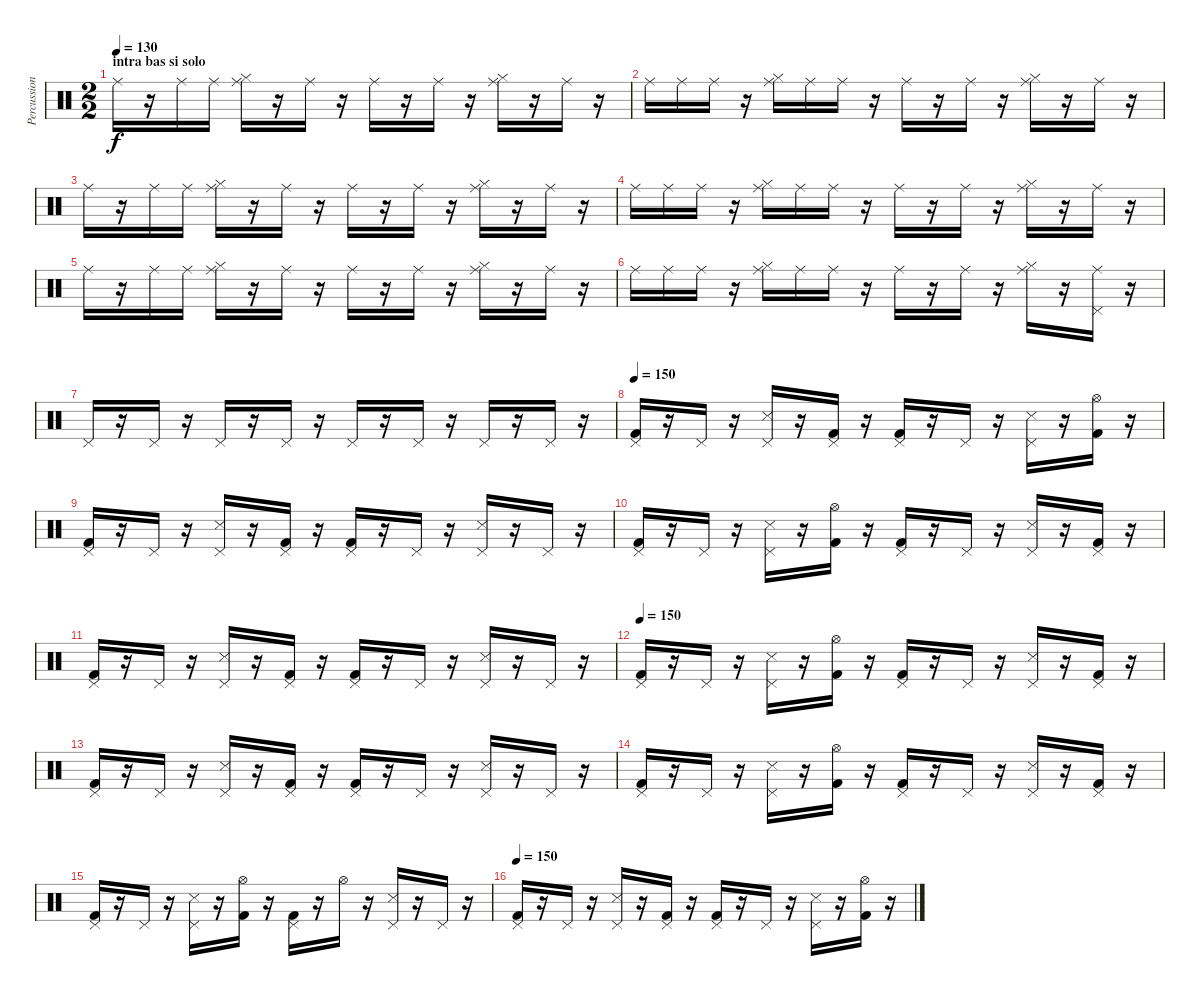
\track ("Percussion" "Percussion") {instrument percussion}
\staff {score}
\articulation defaults
\ts (2 2)
\section ("" "intra bas si solo")
\tempo 130
\clef neutral
\ks c "Ride (middle)".16{dy f balance 16}
r.16 "Ride (middle)".16 "Ride (middle)".16 ("Ride (middle)" "Hi-Hat (closed)").16 r.16 "Ride (middle)".16 r.16 "Ride (middle)".16 r.16 "Ride (middle)".16 r.16 ("Ride (middle)" "Hi-Hat (closed)").16 r.16 "Ride (middle)".16 r.16 |
"Ride (middle)".16 "Ride (middle)".16 "Ride (middle)".16 r.16 ("Ride (middle)" "Hi-Hat (closed)").16 "Ride (middle)".16 "Ride (middle)".16 r.16 "Ride (middle)".16 r.16 "Ride (middle)".16 r.16 ("Ride (middle)" "Hi-Hat (closed)").16 r.16 "Ride (middle)".16 r.16 |
"Ride (middle)".16{balance 0} r.16 "Ride (middle)".16 "Ride (middle)".16 ("Ride (middle)" "Hi-Hat (closed)").16 r.16 "Ride (middle)".16 r.16 "Ride (middle)".16 r.16 "Ride (middle)".16 r.16 ("Ride (middle)" "Hi-Hat (closed)").16 r.16 "Ride (middle)".16 r.16 |
"Ride (middle)".16 "Ride (middle)".16 "Ride (middle)".16 r.16 ("Ride (middle)" "Hi-Hat (closed)").16 "Ride (middle)".16 "Ride (middle)".16 r.16 "Ride (middle)".16 r.16 "Ride (middle)".16 r.16 ("Ride (middle)" "Hi-Hat (closed)").16 r.16 "Ride (middle)".16 r.16 |
"Ride (middle)".16{balance 16} r.16 "Ride (middle)".16 "Ride (middle)".16 ("Ride (middle)" "Hi-Hat (closed)").16 r.16 "Ride (middle)".16 r.16 "Ride (middle)".16 r.16 "Ride (middle)".16 r.16 ("Ride (middle)" "Hi-Hat (closed)").16 r.16 "Ride (middle)".16 r.16 |
"Ride (middle)".16 "Ride (middle)".16 "Ride (middle)".16 r.16 ("Ride (middle)" "Hi-Hat (closed)").16 "Ride (middle)".16 "Ride (middle)".16 r.16 "Ride (middle)".16 r.16 "Ride (middle)".16 r.16 ("Ride (middle)" "Hi-Hat (closed)").16 r.16 ("Ride (middle)" "Pedal Hi-Hat (hit)").16 r.16 |
"Pedal Hi-Hat (hit)".16{balance 8} r.16 "Pedal Hi-Hat (hit)".16 r.16 "Pedal Hi-Hat (hit)".16 r.16 "Pedal Hi-Hat (hit)".16 r.16 "Pedal Hi-Hat (hit)".16 r.16 "Pedal Hi-Hat (hit)".16 r.16 "Pedal Hi-Hat (hit)".16 r.16 "Pedal Hi-Hat (hit)".16 r.16 |
\tempo 150
("Pedal Hi-Hat (hit)" "Kick (hit) 2").16 r.16 "Pedal Hi-Hat (hit)".16 r.16 ("Pedal Hi-Hat (hit)" "Metronome (hit)").16 r.16 ("Pedal Hi-Hat (hit)" "Kick (hit) 2").16 r.16 ("Pedal Hi-Hat (hit)" "Kick (hit) 2").16 r.16 "Pedal Hi-Hat (hit)".16 r.16 ("Pedal Hi-Hat (hit)" "Metronome (hit)").16 r.16 ("Hi-Hat (open)" "Kick (hit) 2").16 r.16 |
("Pedal Hi-Hat (hit)" "Kick (hit) 2").16 r.16 "Pedal Hi-Hat (hit)".16 r.16 ("Pedal Hi-Hat (hit)" "Metronome (hit)").16 r.16 ("Pedal Hi-Hat (hit)" "Kick (hit) 2").16 r.16 ("Pedal Hi-Hat (hit)" "Kick (hit) 2").16 r.16 "Pedal Hi-Hat (hit)".16 r.16 ("Pedal Hi-Hat (hit)" "Metronome (hit)").16 r.16 "Pedal Hi-Hat (hit)".16 r.16 |
("Pedal Hi-Hat (hit)" "Kick (hit) 2").16 r.16 "Pedal Hi-Hat (hit)".16 r.16 ("Pedal Hi-Hat (hit)" "Metronome (hit)").16 r.16 ("Hi-Hat (open)" "Kick (hit) 2").16 r.16 ("Pedal Hi-Hat (hit)" "Kick (hit) 2").16 r.16 "Pedal Hi-Hat (hit)".16 r.16 ("Pedal Hi-Hat (hit)" "Metronome (hit)").16 r.16 ("Pedal Hi-Hat (hit)" "Kick (hit) 2").16 r.16 |
("Pedal Hi-Hat (hit)" "Kick (hit) 2").16 r.16 "Pedal Hi-Hat (hit)".16 r.16 ("Pedal Hi-Hat (hit)" "Metronome (hit)").16 r.16 ("Pedal Hi-Hat (hit)" "Kick (hit) 2").16 r.16 ("Pedal Hi-Hat (hit)" "Kick (hit) 2").16 r.16 "Pedal Hi-Hat (hit)".16 r.16 ("Pedal Hi-Hat (hit)" "Metronome (hit)").16 r.16 "Pedal Hi-Hat (hit)".16 r.16 |
\tempo 150
("Pedal Hi-Hat (hit)" "Kick (hit) 2").16 r.16 "Pedal Hi-Hat (hit)".16 r.16 ("Pedal Hi-Hat (hit)" "Metronome (hit)").16 r.16 ("Hi-Hat (open)" "Kick (hit) 2").16 r.16 ("Pedal Hi-Hat (hit)" "Kick (hit) 2").16 r.16 "Pedal Hi-Hat (hit)".16 r.16 ("Pedal Hi-Hat (hit)" "Metronome (hit)").16 r.16 ("Pedal Hi-Hat (hit)" "Kick (hit) 2").16 r.16 |
("Pedal Hi-Hat (hit)" "Kick (hit) 2").16 r.16 "Pedal Hi-Hat (hit)".16 r.16 ("Pedal Hi-Hat (hit)" "Metronome (hit)").16 r.16 ("Pedal Hi-Hat (hit)" "Kick (hit) 2").16 r.16 ("Pedal Hi-Hat (hit)" "Kick (hit) 2").16 r.16 "Pedal Hi-Hat (hit)".16 r.16 ("Pedal Hi-Hat (hit)" "Metronome (hit)").16 r.16 "Pedal Hi-Hat (hit)".16 r.16 |
("Pedal Hi-Hat (hit)" "Kick (hit) 2").16 r.16 "Pedal Hi-Hat (hit)".16 r.16 ("Pedal Hi-Hat (hit)" "Metronome (hit)").16 r.16 ("Hi-Hat (open)" "Kick (hit) 2").16 r.16 ("Pedal Hi-Hat (hit)" "Kick (hit) 2").16 r.16 "Pedal Hi-Hat (hit)".16 r.16 ("Pedal Hi-Hat (hit)" "Metronome (hit)").16 r.16 ("Pedal Hi-Hat (hit)" "Kick (hit) 2").16 r.16 |
("Pedal Hi-Hat (hit)" "Kick (hit) 2").16 r.16 "Pedal Hi-Hat (hit)".16 r.16 ("Pedal Hi-Hat (hit)" "Metronome (hit)").16 r.16 ("Hi-Hat (open)" "Kick (hit) 2").16 r.16 ("Pedal Hi-Hat (hit)" "Kick (hit) 2").16 r.16 "Hi-Hat (open)".16 r.16 ("Pedal Hi-Hat (hit)" "Metronome (hit)").16 r.16 "Pedal Hi-Hat (hit)".16 r.16 |
\tempo 150
("Pedal Hi-Hat (hit)" "Kick (hit) 2").16 r.16 "Pedal Hi-Hat (hit)".16 r.16 ("Pedal Hi-Hat (hit)" "Metronome (hit)").16 r.16 ("Pedal Hi-Hat (hit)" "Kick (hit) 2").16 r.16 ("Pedal Hi-Hat (hit)" "Kick (hit) 2").16 r.16 "Pedal Hi-Hat (hit)".16 r.16 ("Pedal Hi-Hat (hit)" "Metronome (hit)").16 r.16 ("Hi-Hat (open)" "Kick (hit) 2").16 r.16
